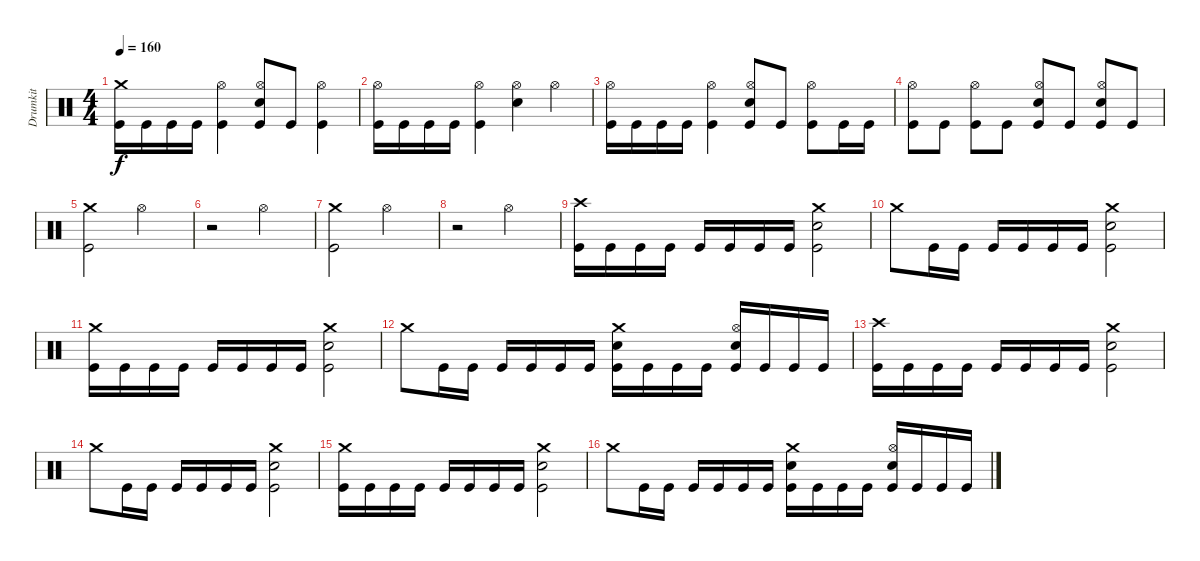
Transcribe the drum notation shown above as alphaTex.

\track ("Drumkit" "Drumkit") {instrument percussion}
\staff {score}
\articulation defaults
\ts (4 4)
\tempo 160
\clef neutral
\ks c
("Crash medium (hit)" "Kick (hit)").16{dy f} "Kick (hit)".16 "Kick (hit)".16 "Kick (hit)".16 ("Hi-Hat (open)" "Kick (hit)").4 ("Hi-Hat (open)" "Snare (hit) 2" "Kick (hit)").8 "Kick (hit)".8 ("Hi-Hat (open)" "Kick (hit)").4 |
("Hi-Hat (open)" "Kick (hit)").16 "Kick (hit)".16 "Kick (hit)".16 "Kick (hit)".16 ("Hi-Hat (open)" "Kick (hit)").4 ("Hi-Hat (open)" "Snare (hit) 2").4 "Hi-Hat (open)".4 |
("Hi-Hat (open)" "Kick (hit)").16 "Kick (hit)".16 "Kick (hit)".16 "Kick (hit)".16 ("Hi-Hat (open)" "Kick (hit)").4 ("Hi-Hat (open)" "Snare (hit) 2" "Kick (hit)").8 "Kick (hit)".8 ("Hi-Hat (open)" "Kick (hit)").8 "Kick (hit)".16 "Kick (hit)".16 |
("Hi-Hat (open)" "Kick (hit)").8 "Kick (hit)".8 ("Hi-Hat (open)" "Kick (hit)").8 "Kick (hit)".8 ("Hi-Hat (open)" "Snare (hit) 2" "Kick (hit)").8 "Kick (hit)".8 ("Hi-Hat (open)" "Snare (hit) 2" "Kick (hit)").8 "Kick (hit)".8 |
("Crash medium (hit)" "Kick (hit)").2 "Hi-Hat (open)".2 |
r.2 "Hi-Hat (open)".2 |
("Crash medium (hit)" "Kick (hit)").2 "Hi-Hat (open)".2 |
r.2 "Hi-Hat (open)".2 |
("Crash high (hit)" "Kick (hit)").16 "Kick (hit)".16 "Kick (hit)".16 "Kick (hit)".16 "Kick (hit)".16 "Kick (hit)".16 "Kick (hit)".16 "Kick (hit)".16 ("Crash medium (hit)" "Snare (hit) 2" "Kick (hit)").2 |
"Crash medium (hit)".8 "Kick (hit)".16 "Kick (hit)".16 "Kick (hit)".16 "Kick (hit)".16 "Kick (hit)".16 "Kick (hit)".16 ("Crash medium (hit)" "Snare (hit) 2" "Kick (hit)").2 |
("Crash medium (hit)" "Kick (hit)").16 "Kick (hit)".16 "Kick (hit)".16 "Kick (hit)".16 "Kick (hit)".16 "Kick (hit)".16 "Kick (hit)".16 "Kick (hit)".16 ("Crash medium (hit)" "Snare (hit) 2" "Kick (hit)").2 |
"Crash medium (hit)".8 "Kick (hit)".16 "Kick (hit)".16 "Kick (hit)".16 "Kick (hit)".16 "Kick (hit)".16 "Kick (hit)".16 ("Crash medium (hit)" "Snare (hit) 2" "Kick (hit)").16 "Kick (hit)".16 "Kick (hit)".16 "Kick (hit)".16 ("Hi-Hat (open)" "Snare (hit) 2" "Kick (hit)").16 "Kick (hit)".16 "Kick (hit)".16 "Kick (hit)".16 |
("Crash high (hit)" "Kick (hit)").16 "Kick (hit)".16 "Kick (hit)".16 "Kick (hit)".16 "Kick (hit)".16 "Kick (hit)".16 "Kick (hit)".16 "Kick (hit)".16 ("Crash medium (hit)" "Snare (hit) 2" "Kick (hit)").2 |
"Crash medium (hit)".8 "Kick (hit)".16 "Kick (hit)".16 "Kick (hit)".16 "Kick (hit)".16 "Kick (hit)".16 "Kick (hit)".16 ("Crash medium (hit)" "Snare (hit) 2" "Kick (hit)").2 |
("Crash medium (hit)" "Kick (hit)").16 "Kick (hit)".16 "Kick (hit)".16 "Kick (hit)".16 "Kick (hit)".16 "Kick (hit)".16 "Kick (hit)".16 "Kick (hit)".16 ("Crash medium (hit)" "Snare (hit) 2" "Kick (hit)").2 |
"Crash medium (hit)".8 "Kick (hit)".16 "Kick (hit)".16 "Kick (hit)".16 "Kick (hit)".16 "Kick (hit)".16 "Kick (hit)".16 ("Crash medium (hit)" "Snare (hit) 2" "Kick (hit)").16 "Kick (hit)".16 "Kick (hit)".16 "Kick (hit)".16 ("Hi-Hat (open)" "Snare (hit) 2" "Kick (hit)").16 "Kick (hit)".16 "Kick (hit)".16 "Kick (hit)".16
